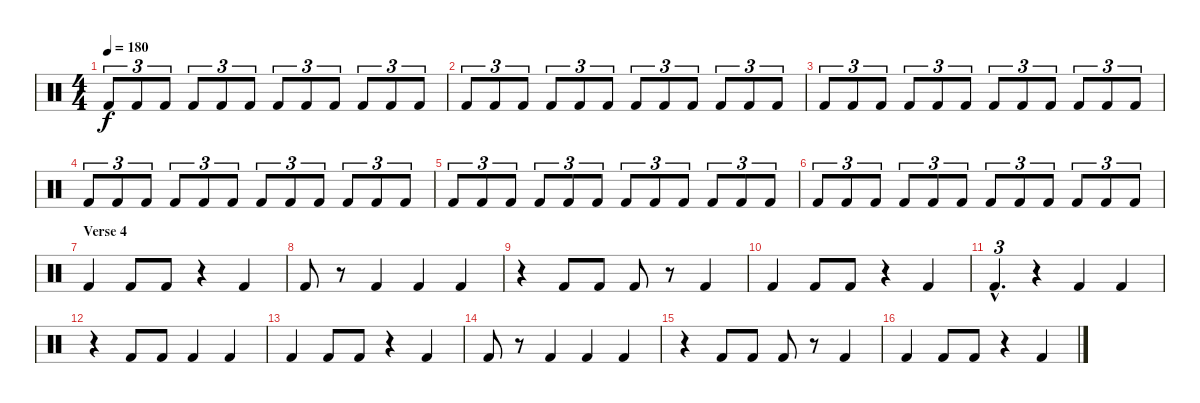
\track "" {instrument percussion}
\staff {score}
\articulation defaults
\ts (4 4)
\tempo 180
\clef neutral
\ks c "Kick (hit) 2".8{tu (3 2) dy f} "Kick (hit) 2".8{tu (3 2)} "Kick (hit) 2".8{tu (3 2)} "Kick (hit) 2".8{tu (3 2)} "Kick (hit) 2".8{tu (3 2)} "Kick (hit) 2".8{tu (3 2)} "Kick (hit) 2".8{tu (3 2)} "Kick (hit) 2".8{tu (3 2)} "Kick (hit) 2".8{tu (3 2)} "Kick (hit) 2".8{tu (3 2)} "Kick (hit) 2".8{tu (3 2)} "Kick (hit) 2".8{tu (3 2)}
|
"Kick (hit) 2".8{tu (3 2)} "Kick (hit) 2".8{tu (3 2)} "Kick (hit) 2".8{tu (3 2)} "Kick (hit) 2".8{tu (3 2)} "Kick (hit) 2".8{tu (3 2)} "Kick (hit) 2".8{tu (3 2)} "Kick (hit) 2".8{tu (3 2)} "Kick (hit) 2".8{tu (3 2)} "Kick (hit) 2".8{tu (3 2)} "Kick (hit) 2".8{tu (3 2)} "Kick (hit) 2".8{tu (3 2)} "Kick (hit) 2".8{tu (3 2)} |
"Kick (hit) 2".8{tu (3 2)} "Kick (hit) 2".8{tu (3 2)} "Kick (hit) 2".8{tu (3 2)} "Kick (hit) 2".8{tu (3 2)} "Kick (hit) 2".8{tu (3 2)} "Kick (hit) 2".8{tu (3 2)} "Kick (hit) 2".8{tu (3 2)} "Kick (hit) 2".8{tu (3 2)} "Kick (hit) 2".8{tu (3 2)} "Kick (hit) 2".8{tu (3 2)} "Kick (hit) 2".8{tu (3 2)} "Kick (hit) 2".8{tu (3 2)} |
"Kick (hit) 2".8{tu (3 2)} "Kick (hit) 2".8{tu (3 2)} "Kick (hit) 2".8{tu (3 2)} "Kick (hit) 2".8{tu (3 2)} "Kick (hit) 2".8{tu (3 2)} "Kick (hit) 2".8{tu (3 2)} "Kick (hit) 2".8{tu (3 2)} "Kick (hit) 2".8{tu (3 2)} "Kick (hit) 2".8{tu (3 2)} "Kick (hit) 2".8{tu (3 2)} "Kick (hit) 2".8{tu (3 2)} "Kick (hit) 2".8{tu (3 2)} |
"Kick (hit) 2".8{tu (3 2)} "Kick (hit) 2".8{tu (3 2)} "Kick (hit) 2".8{tu (3 2)} "Kick (hit) 2".8{tu (3 2)} "Kick (hit) 2".8{tu (3 2)} "Kick (hit) 2".8{tu (3 2)} "Kick (hit) 2".8{tu (3 2)} "Kick (hit) 2".8{tu (3 2)} "Kick (hit) 2".8{tu (3 2)} "Kick (hit) 2".8{tu (3 2)} "Kick (hit) 2".8{tu (3 2)} "Kick (hit) 2".8{tu (3 2)} |
"Kick (hit) 2".8{tu (3 2)} "Kick (hit) 2".8{tu (3 2)} "Kick (hit) 2".8{tu (3 2)} "Kick (hit) 2".8{tu (3 2)} "Kick (hit) 2".8{tu (3 2)} "Kick (hit) 2".8{tu (3 2)} "Kick (hit) 2".8{tu (3 2)} "Kick (hit) 2".8{tu (3 2)} "Kick (hit) 2".8{tu (3 2)} "Kick (hit) 2".8{tu (3 2)} "Kick (hit) 2".8{tu (3 2)} "Kick (hit) 2".8{tu (3 2)} |
\section ("" "Verse 4")
"Kick (hit) 2".4 "Kick (hit) 2".8 "Kick (hit) 2".8 r.4 "Kick (hit) 2".4 |
"Kick (hit) 2".8 r.8 "Kick (hit) 2".4 "Kick (hit) 2".4 "Kick (hit) 2".4 |
r.4 "Kick (hit) 2".8 "Kick (hit) 2".8 "Kick (hit) 2".8 r.8 "Kick (hit) 2".4 |
"Kick (hit) 2".4 "Kick (hit) 2".8 "Kick (hit) 2".8 r.4 "Kick (hit) 2".4 |
"Kick (hit) 2"{hac}.4{d tu (3 2)} r.4 "Kick (hit) 2".4 "Kick (hit) 2".4 |
r.4 "Kick (hit) 2".8 "Kick (hit) 2".8 "Kick (hit) 2".4 "Kick (hit) 2".4 |
"Kick (hit) 2".4 "Kick (hit) 2".8 "Kick (hit) 2".8 r.4 "Kick (hit) 2".4 |
"Kick (hit) 2".8 r.8 "Kick (hit) 2".4 "Kick (hit) 2".4 "Kick (hit) 2".4 |
r.4 "Kick (hit) 2".8 "Kick (hit) 2".8 "Kick (hit) 2".8 r.8 "Kick (hit) 2".4 |
"Kick (hit) 2".4 "Kick (hit) 2".8 "Kick (hit) 2".8 r.4 "Kick (hit) 2".4
